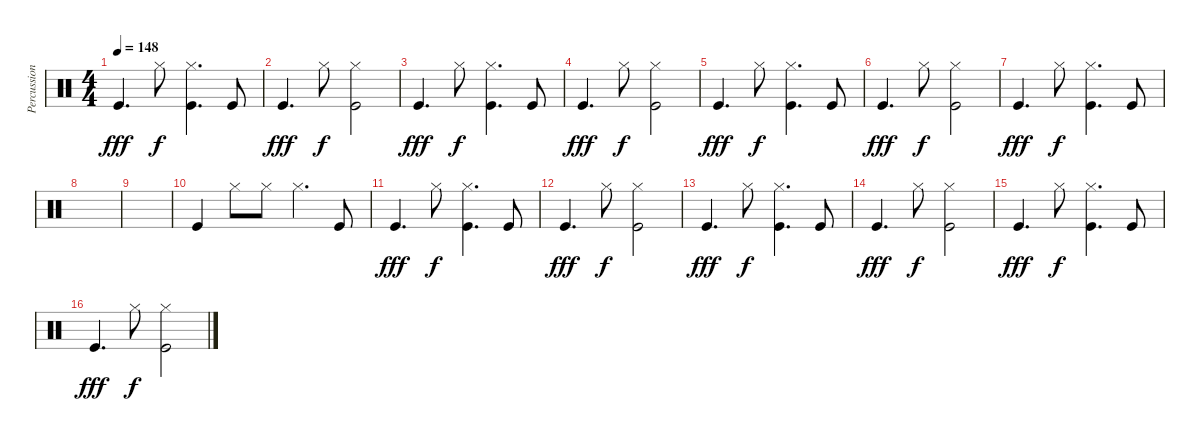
\track ("Percussion" "Percussion") {instrument percussion}
\staff {score}
\articulation defaults
\ts (4 4)
\tempo 148
\clef neutral
\ks c "Kick (hit)".4{d dy fff} "Hi-Hat (closed)".8{dy f}
("Hi-Hat (closed)" "Kick (hit)").4{d} "Kick (hit)".8 |
"Kick (hit)".4{d dy fff} "Hi-Hat (closed)".8{dy f} ("Kick (hit)" "Hi-Hat (closed)").2 |
"Kick (hit)".4{d dy fff} "Hi-Hat (closed)".8{dy f} ("Hi-Hat (closed)" "Kick (hit)").4{d} "Kick (hit)".8 |
"Kick (hit)".4{d dy fff} "Hi-Hat (closed)".8{dy f} ("Kick (hit)" "Hi-Hat (closed)").2 |
"Kick (hit)".4{d dy fff} "Hi-Hat (closed)".8{dy f} ("Hi-Hat (closed)" "Kick (hit)").4{d} "Kick (hit)".8 |
"Kick (hit)".4{d dy fff} "Hi-Hat (closed)".8{dy f} ("Kick (hit)" "Hi-Hat (closed)").2 |
"Kick (hit)".4{d dy fff} "Hi-Hat (closed)".8{dy f} ("Hi-Hat (closed)" "Kick (hit)").4{d} "Kick (hit)".8 |
|
|
"Kick (hit)".4 "Hi-Hat (closed)".8 "Hi-Hat (closed)".8 "Hi-Hat (closed)".4{d} "Kick (hit)".8 |
"Kick (hit)".4{d dy fff} "Hi-Hat (closed)".8{dy f} ("Hi-Hat (closed)" "Kick (hit)").4{d} "Kick (hit)".8 |
"Kick (hit)".4{d dy fff} "Hi-Hat (closed)".8{dy f} ("Kick (hit)" "Hi-Hat (closed)").2 |
"Kick (hit)".4{d dy fff} "Hi-Hat (closed)".8{dy f} ("Hi-Hat (closed)" "Kick (hit)").4{d} "Kick (hit)".8 |
"Kick (hit)".4{d dy fff} "Hi-Hat (closed)".8{dy f} ("Kick (hit)" "Hi-Hat (closed)").2 |
"Kick (hit)".4{d dy fff} "Hi-Hat (closed)".8{dy f} ("Hi-Hat (closed)" "Kick (hit)").4{d} "Kick (hit)".8 |
"Kick (hit)".4{d dy fff} "Hi-Hat (closed)".8{dy f} ("Kick (hit)" "Hi-Hat (closed)").2
